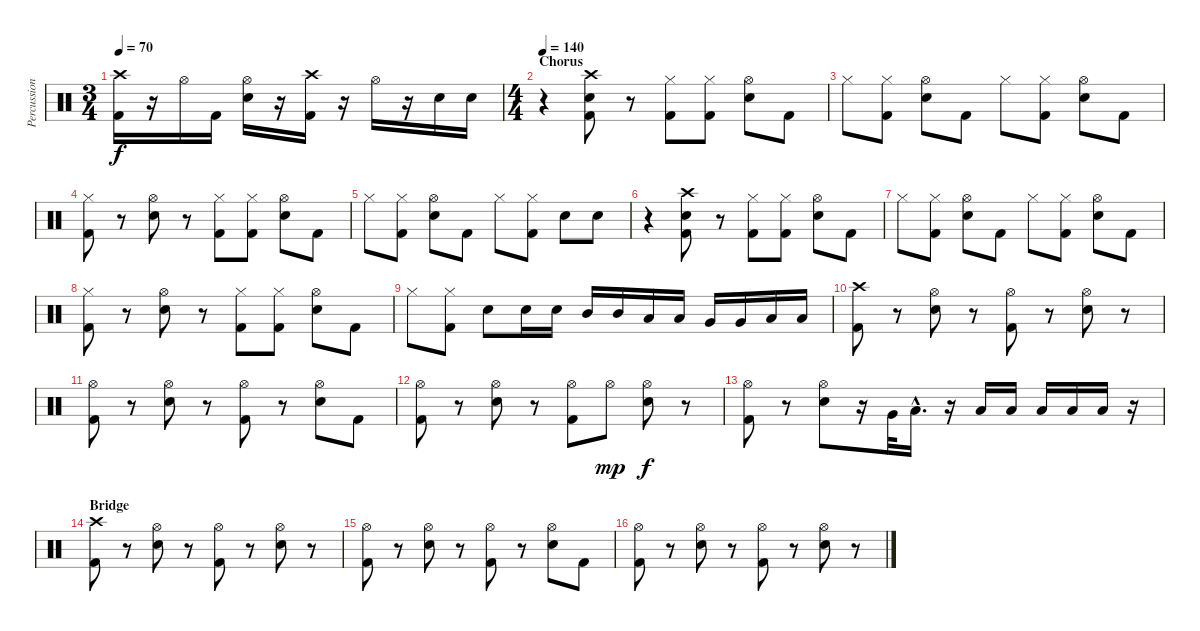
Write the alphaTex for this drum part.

\track ("Percussion" "Percussion") {instrument percussion}
\staff {score}
\articulation defaults
\ts (3 4)
\tempo 70
\clef neutral
\ks c
("Crash high (hit)" "Kick (hit) 2").16{dy f} r.16 "Hi-Hat (open)".16 "Kick (hit) 2".16 ("Hi-Hat (open)" "Electric Snare (hit)").16 r.16 ("Crash high (hit)" "Kick (hit) 2").16 r.16 "Hi-Hat (open)".16 r.16 "Electric Snare (hit)".16 "Electric Snare (hit)".16 |
\ts (4 4)
\section ("" "Chorus")
\tempo 140
r.4 ("Crash high (hit)" "Electric Snare (hit)" "Kick (hit) 2").8 r.8 ("Hi-Hat (closed)" "Kick (hit) 2").8 ("Hi-Hat (closed)" "Kick (hit) 2").8 ("Hi-Hat (open)" "Electric Snare (hit)").8 "Kick (hit) 2".8 |
"Hi-Hat (closed)".8 ("Hi-Hat (closed)" "Kick (hit) 2").8 ("Hi-Hat (open)" "Electric Snare (hit)").8 "Kick (hit) 2".8 "Hi-Hat (closed)".8 ("Hi-Hat (closed)" "Kick (hit) 2").8 ("Hi-Hat (open)" "Electric Snare (hit)").8 "Kick (hit) 2".8 |
("Hi-Hat (closed)" "Kick (hit) 2").8 r.8 ("Hi-Hat (open)" "Electric Snare (hit)").8 r.8 ("Hi-Hat (closed)" "Kick (hit) 2").8 ("Hi-Hat (closed)" "Kick (hit) 2").8 ("Hi-Hat (open)" "Electric Snare (hit)").8 "Kick (hit) 2".8 |
"Hi-Hat (closed)".8 ("Hi-Hat (closed)" "Kick (hit) 2").8 ("Hi-Hat (open)" "Electric Snare (hit)").8 "Kick (hit) 2".8 "Hi-Hat (closed)".8 ("Hi-Hat (closed)" "Kick (hit) 2").8 "Electric Snare (hit)".8 "Electric Snare (hit)".8 |
r.4 ("Crash high (hit)" "Electric Snare (hit)" "Kick (hit) 2").8 r.8 ("Hi-Hat (closed)" "Kick (hit) 2").8 ("Hi-Hat (closed)" "Kick (hit) 2").8 ("Hi-Hat (open)" "Electric Snare (hit)").8 "Kick (hit) 2".8 |
"Hi-Hat (closed)".8 ("Hi-Hat (closed)" "Kick (hit) 2").8 ("Hi-Hat (open)" "Electric Snare (hit)").8 "Kick (hit) 2".8 "Hi-Hat (closed)".8 ("Hi-Hat (closed)" "Kick (hit) 2").8 ("Hi-Hat (open)" "Electric Snare (hit)").8 "Kick (hit) 2".8 |
("Hi-Hat (closed)" "Kick (hit) 2").8 r.8 ("Hi-Hat (open)" "Electric Snare (hit)").8 r.8 ("Hi-Hat (closed)" "Kick (hit) 2").8 ("Hi-Hat (closed)" "Kick (hit) 2").8 ("Hi-Hat (open)" "Electric Snare (hit)").8 "Kick (hit) 2".8 |
"Hi-Hat (closed)".8 ("Hi-Hat (closed)" "Kick (hit) 2").8 "Electric Snare (hit)".8 "Electric Snare (hit)".16 "Electric Snare (hit)".16 "Mid Tom (hit)".16 "Mid Tom (hit)".16 "Low Tom (hit)".16 "Low Tom (hit)".16 "Very Low Tom (hit)".16 "Very Low Tom (hit)".16 "Low Floor Tom (hit)".16 "Low Floor Tom (hit)".16 |
("Crash high (hit)" "Kick (hit) 2").8 r.8 ("Hi-Hat (open)" "Electric Snare (hit)").8 r.8 ("Hi-Hat (open)" "Kick (hit) 2").8 r.8 ("Hi-Hat (open)" "Electric Snare (hit)").8 r.8 |
("Hi-Hat (open)" "Kick (hit) 2").8 r.8 ("Hi-Hat (open)" "Electric Snare (hit)").8 r.8 ("Hi-Hat (open)" "Kick (hit) 2").8 r.8 ("Hi-Hat (open)" "Electric Snare (hit)").8 "Kick (hit) 2".8 |
("Hi-Hat (open)" "Kick (hit) 2").8 r.8 ("Hi-Hat (open)" "Electric Snare (hit)").8 r.8 ("Hi-Hat (open)" "Kick (hit) 2").8 "Hi-Hat (open)".8{dy mp} ("Hi-Hat (open)" "Electric Snare (hit)").8{dy f} r.8 |
("Hi-Hat (open)" "Kick (hit) 2").8 r.8 ("Hi-Hat (open)" "Electric Snare (hit)").8 r.16 "Very Low Tom (hit)".32 "Low Tom (hit)"{hac}.16{d} r.16 "Low Tom (hit)".16 "Low Tom (hit)".16 "Low Tom (hit)".16 "Low Tom (hit)".16 "Low Tom (hit)".16 r.16 |
\section ("" "Bridge")
("Crash high (hit)" "Kick (hit) 2").8 r.8 ("Hi-Hat (open)" "Electric Snare (hit)").8 r.8 ("Hi-Hat (open)" "Kick (hit) 2").8 r.8 ("Hi-Hat (open)" "Electric Snare (hit)").8 r.8 |
("Hi-Hat (open)" "Kick (hit) 2").8 r.8 ("Hi-Hat (open)" "Electric Snare (hit)").8 r.8 ("Hi-Hat (open)" "Kick (hit) 2").8 r.8 ("Hi-Hat (open)" "Electric Snare (hit)").8 "Kick (hit) 2".8 |
("Hi-Hat (open)" "Kick (hit) 2").8 r.8 ("Hi-Hat (open)" "Electric Snare (hit)").8 r.8 ("Hi-Hat (open)" "Kick (hit) 2").8 r.8 ("Hi-Hat (open)" "Electric Snare (hit)").8 r.8
